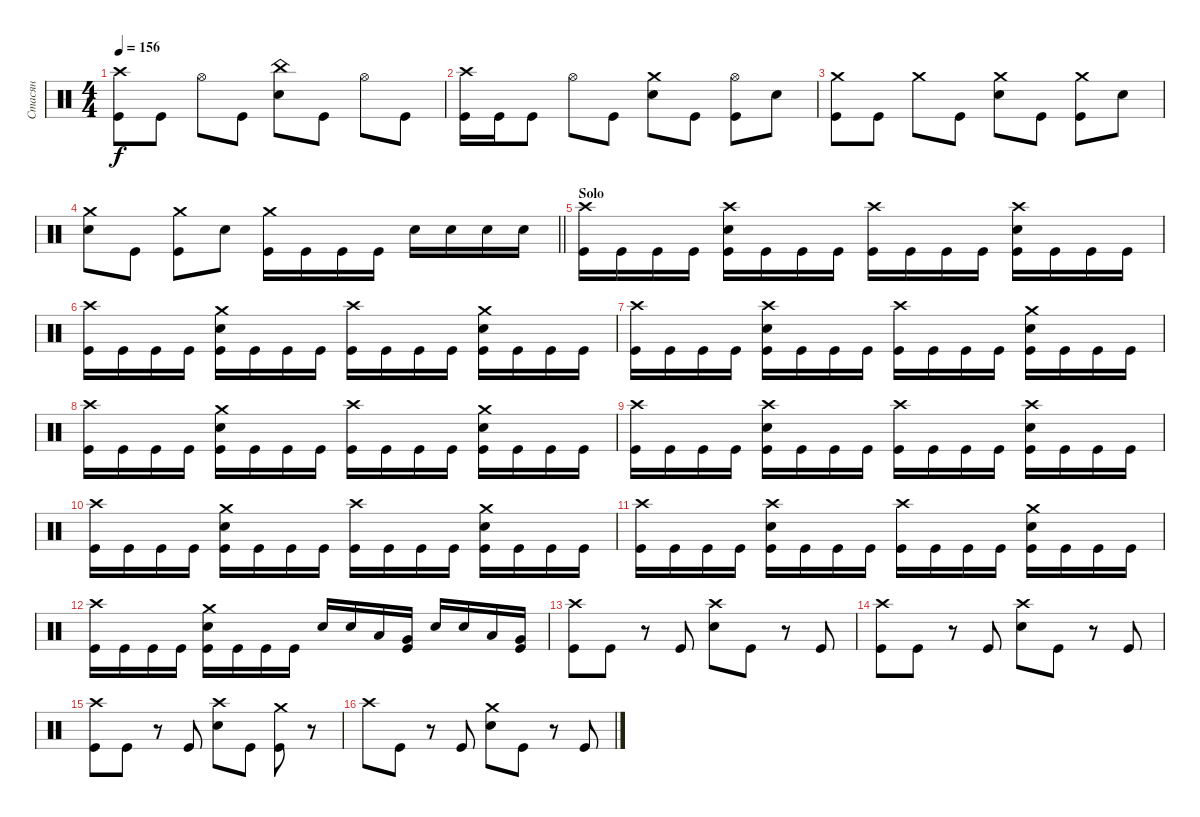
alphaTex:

\track ("Стасян" "Стасян") {instrument percussion}
\staff
\articulation defaults
\ts (4 4)
\tempo 156
\clef neutral
\ks c
("Crash high (hit)" "Kick (hit)").8{dy f} "Kick (hit)".8 "Hi-Hat (open)".8 "Kick (hit)".8 ("China (hit)" "Snare (hit) 2").8 "Kick (hit)".8 "Hi-Hat (open)".8 "Kick (hit)".8 |
("Crash high (hit)" "Kick (hit)").16 "Kick (hit)".16 "Kick (hit)".8 "Hi-Hat (open)".8 "Kick (hit)".8 ("Crash medium (hit)" "Snare (hit) 2").8 "Kick (hit)".8 ("Hi-Hat (open)" "Kick (hit)").8 "Snare (hit) 2".8 |
("Crash medium (hit)" "Kick (hit)").8 "Kick (hit)".8 "Crash medium (hit)".8 "Kick (hit)".8 ("Crash medium (hit)" "Snare (hit) 2").8 "Kick (hit)".8 ("Crash medium (hit)" "Kick (hit)").8 "Snare (hit) 2".8 |
\barLineRight lightlight
("Crash medium (hit)" "Snare (hit) 2").8 "Kick (hit)".8 ("Crash medium (hit)" "Kick (hit)").8 "Snare (hit) 2".8 ("Crash medium (hit)" "Kick (hit)").16 "Kick (hit)".16 "Kick (hit)".16 "Kick (hit)".16 "Snare (hit) 2".16 "Snare (hit) 2".16 "Snare (hit) 2".16 "Snare (hit) 2".16 |
\section ("" "Solo")
("Kick (hit)" "Crash high (hit)").16 "Kick (hit)".16 "Kick (hit)".16 "Kick (hit)".16 ("Kick (hit)" "Crash high (hit)" "Snare (hit) 2").16 "Kick (hit)".16 "Kick (hit)".16 "Kick (hit)".16 ("Kick (hit)" "Crash high (hit)").16 "Kick (hit)".16 "Kick (hit)".16 "Kick (hit)".16 ("Kick (hit)" "Crash high (hit)" "Snare (hit) 2").16 "Kick (hit)".16 "Kick (hit)".16 "Kick (hit)".16 |
("Kick (hit)" "Crash high (hit)").16 "Kick (hit)".16 "Kick (hit)".16 "Kick (hit)".16 ("Kick (hit)" "Crash medium (hit)" "Snare (hit) 2").16 "Kick (hit)".16 "Kick (hit)".16 "Kick (hit)".16 ("Kick (hit)" "Crash high (hit)").16 "Kick (hit)".16 "Kick (hit)".16 "Kick (hit)".16 ("Kick (hit)" "Crash medium (hit)" "Snare (hit) 2").16 "Kick (hit)".16 "Kick (hit)".16 "Kick (hit)".16 |
("Kick (hit)" "Crash high (hit)").16 "Kick (hit)".16 "Kick (hit)".16 "Kick (hit)".16 ("Kick (hit)" "Crash high (hit)" "Snare (hit) 2").16 "Kick (hit)".16 "Kick (hit)".16 "Kick (hit)".16 ("Kick (hit)" "Crash high (hit)").16 "Kick (hit)".16 "Kick (hit)".16 "Kick (hit)".16 ("Kick (hit)" "Snare (hit) 2" "Crash medium (hit)").16 "Kick (hit)".16 "Kick (hit)".16 "Kick (hit)".16 |
("Kick (hit)" "Crash high (hit)").16 "Kick (hit)".16 "Kick (hit)".16 "Kick (hit)".16 ("Kick (hit)" "Crash medium (hit)" "Snare (hit) 2").16 "Kick (hit)".16 "Kick (hit)".16 "Kick (hit)".16 ("Kick (hit)" "Crash high (hit)").16 "Kick (hit)".16 "Kick (hit)".16 "Kick (hit)".16 ("Kick (hit)" "Crash medium (hit)" "Snare (hit) 2").16 "Kick (hit)".16 "Kick (hit)".16 "Kick (hit)".16 |
("Kick (hit)" "Crash high (hit)").16 "Kick (hit)".16 "Kick (hit)".16 "Kick (hit)".16 ("Kick (hit)" "Crash high (hit)" "Snare (hit) 2").16 "Kick (hit)".16 "Kick (hit)".16 "Kick (hit)".16 ("Kick (hit)" "Crash high (hit)").16 "Kick (hit)".16 "Kick (hit)".16 "Kick (hit)".16 ("Kick (hit)" "Crash high (hit)" "Snare (hit) 2").16 "Kick (hit)".16 "Kick (hit)".16 "Kick (hit)".16 |
("Kick (hit)" "Crash high (hit)").16 "Kick (hit)".16 "Kick (hit)".16 "Kick (hit)".16 ("Kick (hit)" "Crash medium (hit)" "Snare (hit) 2").16 "Kick (hit)".16 "Kick (hit)".16 "Kick (hit)".16 ("Kick (hit)" "Crash high (hit)").16 "Kick (hit)".16 "Kick (hit)".16 "Kick (hit)".16 ("Kick (hit)" "Crash medium (hit)" "Snare (hit) 2").16 "Kick (hit)".16 "Kick (hit)".16 "Kick (hit)".16 |
("Kick (hit)" "Crash high (hit)").16 "Kick (hit)".16 "Kick (hit)".16 "Kick (hit)".16 ("Kick (hit)" "Crash high (hit)" "Snare (hit) 2").16 "Kick (hit)".16 "Kick (hit)".16 "Kick (hit)".16 ("Kick (hit)" "Crash high (hit)").16 "Kick (hit)".16 "Kick (hit)".16 "Kick (hit)".16 ("Kick (hit)" "Snare (hit) 2" "Crash medium (hit)").16 "Kick (hit)".16 "Kick (hit)".16 "Kick (hit)".16 |
("Kick (hit)" "Crash high (hit)").16 "Kick (hit)".16 "Kick (hit)".16 "Kick (hit)".16 ("Kick (hit)" "Crash medium (hit)" "Snare (hit) 2").16 "Kick (hit)".16 "Kick (hit)".16 "Kick (hit)".16 "Snare (hit) 2".16 "Snare (hit) 2".16 "Low Tom (hit)".16 ("Kick (hit)" "Very Low Tom (hit)").16 "Snare (hit) 2".16 "Snare (hit) 2".16 "Low Tom (hit)".16 ("Very Low Tom (hit)" "Kick (hit)").16 |
("Crash high (hit)" "Kick (hit)").8 "Kick (hit)".8 r.8 "Kick (hit)".8 ("Crash high (hit)" "Snare (hit) 2").8 "Kick (hit)".8 r.8 "Kick (hit)".8 |
("Crash high (hit)" "Kick (hit)").8 "Kick (hit)".8 r.8 "Kick (hit)".8 ("Crash high (hit)" "Snare (hit) 2").8 "Kick (hit)".8 r.8 "Kick (hit)".8 |
("Crash high (hit)" "Kick (hit)").8 "Kick (hit)".8 r.8 "Kick (hit)".8 ("Crash high (hit)" "Snare (hit) 2").8 "Kick (hit)".8 ("Crash medium (hit)" "Kick (hit)").8 r.8 |
"Crash high (hit)".8 "Kick (hit)".8 r.8 "Kick (hit)".8 ("Snare (hit) 2" "Crash medium (hit)").8 "Kick (hit)".8 r.8 "Kick (hit)".8
